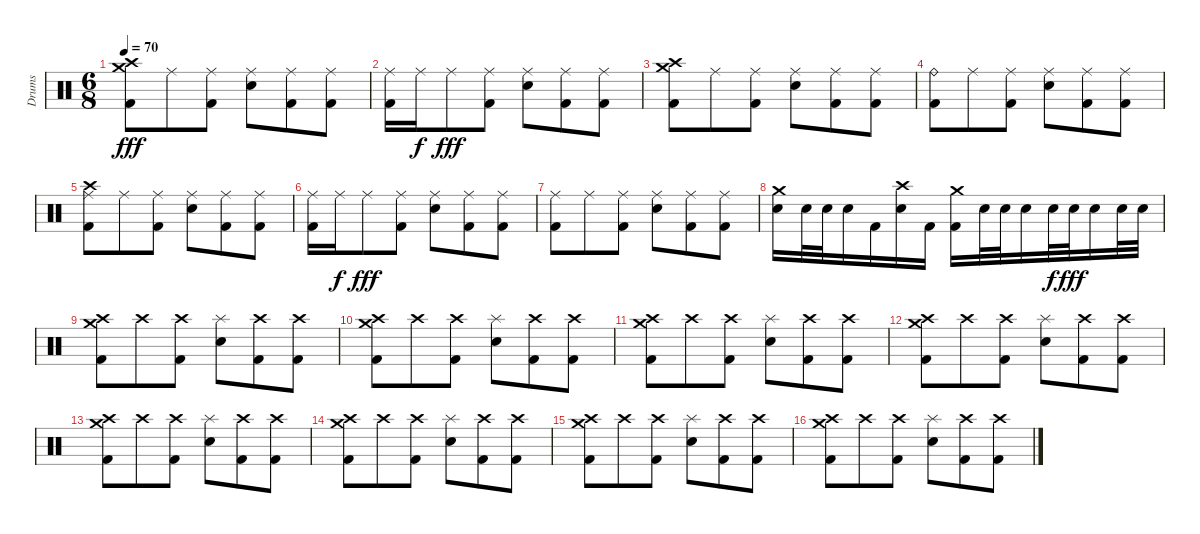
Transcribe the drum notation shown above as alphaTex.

\track ("Drums" "Drums") {instrument percussion}
\staff {score}
\articulation defaults
\ts (6 8)
\tempo 70
\clef neutral
\ks c
("Crash high (hit)" "Crash medium (hit)" "Kick (hit) 2").8{dy fff} "Ride (middle)".8 ("Ride (middle)" "Kick (hit) 2").8 ("Ride (middle)" "Electric Snare (hit)").8 ("Ride (middle)" "Kick (hit) 2").8 ("Ride (middle)" "Kick (hit) 2").8 |
("Ride (middle)" "Kick (hit) 2").16 "Ride (middle)".16{dy f} "Ride (middle)".8{dy fff} ("Ride (middle)" "Kick (hit) 2").8 ("Ride (middle)" "Electric Snare (hit)").8 ("Ride (middle)" "Kick (hit) 2").8 ("Ride (middle)" "Kick (hit) 2").8 |
("Crash high (hit)" "Crash medium (hit)" "Kick (hit) 2").8 "Ride (middle)".8 ("Ride (middle)" "Kick (hit) 2").8 ("Ride (middle)" "Electric Snare (hit)").8 ("Ride (middle)" "Kick (hit) 2").8 ("Ride (middle)" "Kick (hit) 2").8 |
("Ride (bell)" "Kick (hit) 2").8 "Ride (middle)".8 ("Ride (middle)" "Kick (hit) 2").8 ("Ride (middle)" "Electric Snare (hit)").8 ("Ride (middle)" "Kick (hit) 2").8 ("Ride (middle)" "Kick (hit) 2").8 |
("Crash high (hit)" "Ride (middle)" "Kick (hit) 2").8 "Ride (middle)".8 ("Ride (middle)" "Kick (hit) 2").8 ("Ride (middle)" "Electric Snare (hit)").8 ("Ride (middle)" "Kick (hit) 2").8 ("Ride (middle)" "Kick (hit) 2").8 |
("Ride (middle)" "Kick (hit) 2").16 "Ride (middle)".16{dy f} "Ride (middle)".8{dy fff} ("Ride (middle)" "Kick (hit) 2").8 ("Ride (middle)" "Electric Snare (hit)").8 ("Ride (middle)" "Kick (hit) 2").8 ("Ride (middle)" "Kick (hit) 2").8 |
("Ride (middle)" "Kick (hit) 2").8 "Ride (middle)".8 ("Ride (middle)" "Kick (hit) 2").8 ("Ride (middle)" "Electric Snare (hit)").8 ("Ride (middle)" "Kick (hit) 2").8 ("Ride (middle)" "Kick (hit) 2").8 |
("Crash medium (hit)" "Electric Snare (hit)").16 "Electric Snare (hit)".32 "Electric Snare (hit)".32 "Electric Snare (hit)".16 "Kick (hit) 2".16 ("Crash high (hit)" "Electric Snare (hit)").16 "Kick (hit) 2".16 ("Crash medium (hit)" "Kick (hit) 2").16 "Electric Snare (hit)".32 "Electric Snare (hit)".32 "Electric Snare (hit)".16 "Electric Snare (hit)".32{dy f} "Electric Snare (hit)".32{dy fff} "Electric Snare (hit)".16 "Electric Snare (hit)".32 "Electric Snare (hit)".32 |
("Crash medium (hit)" "Crash high (hit)" "Kick (hit) 2").8 "Crash high (hit)".8 ("Crash high (hit)" "Kick (hit) 2").8 ("Splash (hit)" "Electric Snare (hit)").8 ("Crash high (hit)" "Kick (hit) 2").8 ("Crash high (hit)" "Kick (hit) 2").8 |
("Crash medium (hit)" "Crash high (hit)" "Kick (hit) 2").8 "Crash high (hit)".8 ("Crash high (hit)" "Kick (hit) 2").8 ("Splash (hit)" "Electric Snare (hit)").8 ("Crash high (hit)" "Kick (hit) 2").8 ("Crash high (hit)" "Kick (hit) 2").8 |
("Crash medium (hit)" "Crash high (hit)" "Kick (hit) 2").8 "Crash high (hit)".8 ("Crash high (hit)" "Kick (hit) 2").8 ("Splash (hit)" "Electric Snare (hit)").8 ("Crash high (hit)" "Kick (hit) 2").8 ("Crash high (hit)" "Kick (hit) 2").8 |
("Crash medium (hit)" "Crash high (hit)" "Kick (hit) 2").8 "Crash high (hit)".8 ("Crash high (hit)" "Kick (hit) 2").8 ("Splash (hit)" "Electric Snare (hit)").8 ("Crash high (hit)" "Kick (hit) 2").8 ("Crash high (hit)" "Kick (hit) 2").8 |
("Crash medium (hit)" "Crash high (hit)" "Kick (hit) 2").8 "Crash high (hit)".8 ("Crash high (hit)" "Kick (hit) 2").8 ("Splash (hit)" "Electric Snare (hit)").8 ("Crash high (hit)" "Kick (hit) 2").8 ("Crash high (hit)" "Kick (hit) 2").8 |
("Crash medium (hit)" "Crash high (hit)" "Kick (hit) 2").8 "Crash high (hit)".8 ("Crash high (hit)" "Kick (hit) 2").8 ("Splash (hit)" "Electric Snare (hit)").8 ("Crash high (hit)" "Kick (hit) 2").8 ("Crash high (hit)" "Kick (hit) 2").8 |
("Crash medium (hit)" "Crash high (hit)" "Kick (hit) 2").8 "Crash high (hit)".8 ("Crash high (hit)" "Kick (hit) 2").8 ("Splash (hit)" "Electric Snare (hit)").8 ("Crash high (hit)" "Kick (hit) 2").8 ("Crash high (hit)" "Kick (hit) 2").8 |
("Crash medium (hit)" "Crash high (hit)" "Kick (hit) 2").8 "Crash high (hit)".8 ("Crash high (hit)" "Kick (hit) 2").8 ("Splash (hit)" "Electric Snare (hit)").8 ("Crash high (hit)" "Kick (hit) 2").8 ("Crash high (hit)" "Kick (hit) 2").8
